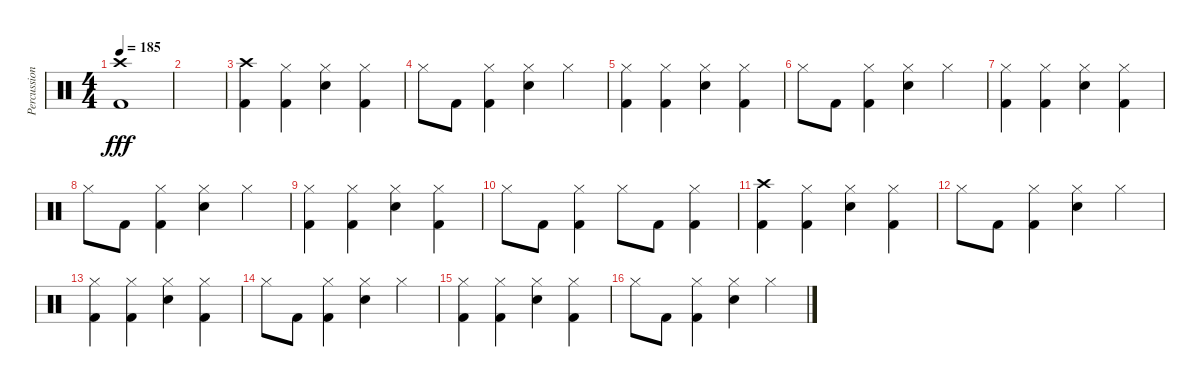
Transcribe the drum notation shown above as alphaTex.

\track ("Percussion" "Percussion") {instrument percussion}
\staff {score}
\articulation defaults
\ts (4 4)
\tempo 185
\clef neutral
\ks c
("Crash high (hit)" "Kick (hit) 2").1{dy fff} |
|
("Crash high (hit)" "Kick (hit) 2").4 ("Hi-Hat (closed)" "Kick (hit) 2").4 ("Hi-Hat (closed)" "Electric Snare (hit)").4 ("Hi-Hat (closed)" "Kick (hit) 2").4 |
"Hi-Hat (closed)".8 "Kick (hit) 2".8 ("Hi-Hat (closed)" "Kick (hit) 2").4 ("Hi-Hat (closed)" "Electric Snare (hit)").4 "Hi-Hat (closed)".4 |
("Hi-Hat (closed)" "Kick (hit) 2").4 ("Hi-Hat (closed)" "Kick (hit) 2").4 ("Hi-Hat (closed)" "Electric Snare (hit)").4 ("Hi-Hat (closed)" "Kick (hit) 2").4 |
"Hi-Hat (closed)".8 "Kick (hit) 2".8 ("Hi-Hat (closed)" "Kick (hit) 2").4 ("Hi-Hat (closed)" "Electric Snare (hit)").4 "Hi-Hat (closed)".4 |
("Hi-Hat (closed)" "Kick (hit) 2").4 ("Hi-Hat (closed)" "Kick (hit) 2").4 ("Hi-Hat (closed)" "Electric Snare (hit)").4 ("Hi-Hat (closed)" "Kick (hit) 2").4 |
"Hi-Hat (closed)".8 "Kick (hit) 2".8 ("Hi-Hat (closed)" "Kick (hit) 2").4 ("Hi-Hat (closed)" "Electric Snare (hit)").4 "Hi-Hat (closed)".4 |
("Hi-Hat (closed)" "Kick (hit) 2").4 ("Hi-Hat (closed)" "Kick (hit) 2").4 ("Hi-Hat (closed)" "Electric Snare (hit)").4 ("Hi-Hat (closed)" "Kick (hit) 2").4 |
"Hi-Hat (closed)".8 "Kick (hit) 2".8 ("Hi-Hat (closed)" "Kick (hit) 2").4 "Hi-Hat (closed)".8 "Kick (hit) 2".8 ("Hi-Hat (closed)" "Kick (hit) 2").4 |
("Crash high (hit)" "Kick (hit) 2").4 ("Hi-Hat (closed)" "Kick (hit) 2").4 ("Hi-Hat (closed)" "Electric Snare (hit)").4 ("Hi-Hat (closed)" "Kick (hit) 2").4 |
"Hi-Hat (closed)".8 "Kick (hit) 2".8 ("Hi-Hat (closed)" "Kick (hit) 2").4 ("Hi-Hat (closed)" "Electric Snare (hit)").4 "Hi-Hat (closed)".4 |
("Hi-Hat (closed)" "Kick (hit) 2").4 ("Hi-Hat (closed)" "Kick (hit) 2").4 ("Hi-Hat (closed)" "Electric Snare (hit)").4 ("Hi-Hat (closed)" "Kick (hit) 2").4 |
"Hi-Hat (closed)".8 "Kick (hit) 2".8 ("Hi-Hat (closed)" "Kick (hit) 2").4 ("Hi-Hat (closed)" "Electric Snare (hit)").4 "Hi-Hat (closed)".4 |
("Hi-Hat (closed)" "Kick (hit) 2").4 ("Hi-Hat (closed)" "Kick (hit) 2").4 ("Hi-Hat (closed)" "Electric Snare (hit)").4 ("Hi-Hat (closed)" "Kick (hit) 2").4 |
"Hi-Hat (closed)".8 "Kick (hit) 2".8 ("Hi-Hat (closed)" "Kick (hit) 2").4 ("Hi-Hat (closed)" "Electric Snare (hit)").4 "Hi-Hat (closed)".4
